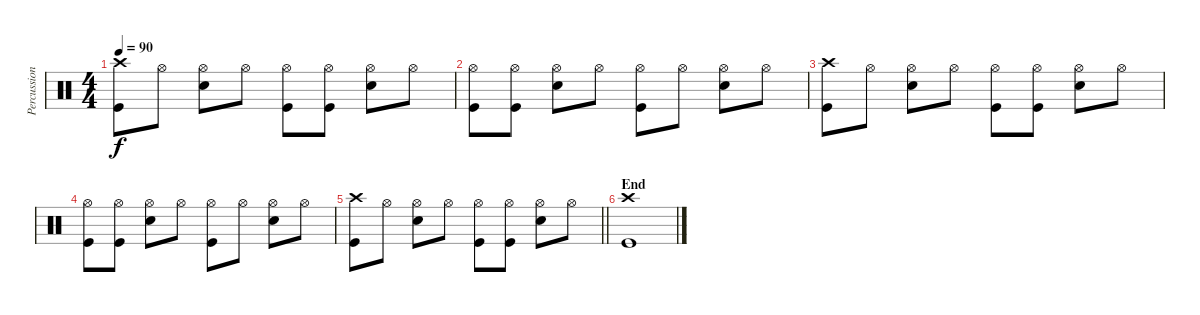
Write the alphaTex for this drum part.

\track ("Percussion" "Percussion") {instrument percussion}
\staff {score}
\articulation defaults
\ts (4 4)
\tempo 90
\clef neutral
\ks c
("Crash high (hit)" "Kick (hit)").8{dy f} "Hi-Hat (open)".8 ("Hi-Hat (open)" "Snare (hit) 2").8 "Hi-Hat (open)".8 ("Hi-Hat (open)" "Kick (hit)").8 ("Hi-Hat (open)" "Kick (hit)").8 ("Hi-Hat (open)" "Snare (hit) 2").8 "Hi-Hat (open)".8 |
("Hi-Hat (open)" "Kick (hit)").8 ("Hi-Hat (open)" "Kick (hit)").8 ("Hi-Hat (open)" "Snare (hit) 2").8 "Hi-Hat (open)".8 ("Hi-Hat (open)" "Kick (hit)").8 "Hi-Hat (open)".8 ("Hi-Hat (open)" "Snare (hit) 2").8 "Hi-Hat (open)".8 |
("Crash high (hit)" "Kick (hit)").8 "Hi-Hat (open)".8 ("Hi-Hat (open)" "Snare (hit) 2").8 "Hi-Hat (open)".8 ("Hi-Hat (open)" "Kick (hit)").8 ("Hi-Hat (open)" "Kick (hit)").8 ("Hi-Hat (open)" "Snare (hit) 2").8 "Hi-Hat (open)".8 |
("Hi-Hat (open)" "Kick (hit)").8 ("Hi-Hat (open)" "Kick (hit)").8 ("Hi-Hat (open)" "Snare (hit) 2").8 "Hi-Hat (open)".8 ("Hi-Hat (open)" "Kick (hit)").8 "Hi-Hat (open)".8 ("Hi-Hat (open)" "Snare (hit) 2").8 "Hi-Hat (open)".8 |
\barLineRight lightlight
("Crash high (hit)" "Kick (hit)").8 "Hi-Hat (open)".8 ("Hi-Hat (open)" "Snare (hit) 2").8 "Hi-Hat (open)".8 ("Hi-Hat (open)" "Kick (hit)").8 ("Hi-Hat (open)" "Kick (hit)").8 ("Hi-Hat (open)" "Snare (hit) 2").8 "Hi-Hat (open)".8 |
\section ("" "End")
("Crash high (hit)" "Kick (hit)").1
